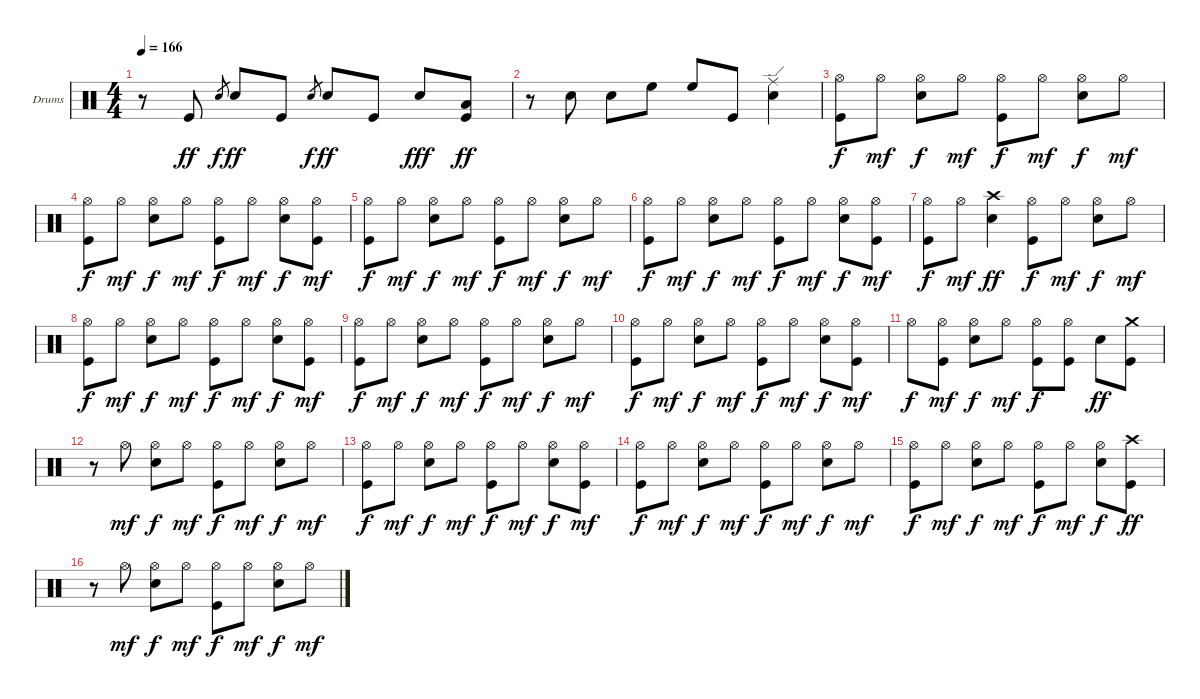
\defaultSystemsLayout 4
\bracketExtendMode groupsimilarinstruments
\firstSystemTrackNameOrientation horizontal
\otherSystemsTrackNameOrientation horizontal
\track ("Lars Ulrich" "Drums") {instrument percussion}
\staff {score}
\articulation defaults
\ts (4 4)
\tempo 166
\clef neutral
\scale
0.333333
\ks c
r.8{dy ff} "Kick (hit)".8 "Snare (hit) 2".8{gr dy f} "Snare (hit) 2".8{dy ff} "Kick (hit)".8 "Snare (hit) 2".8{gr dy f} "Snare (hit) 2".8{dy ff} "Kick (hit)".8 "Snare (hit) 2".8{dy fff} ("Low Tom (hit)" "Kick (hit)").8{dy ff} |
\scale
0.333333 r.8 "Snare (hit) 2".8 "Snare (hit) 2".8 "High Floor Tom (hit)".8 "High Floor Tom (hit)".8 "Kick (hit)".8 ("Ride (edge)" "Snare (hit) 2").4 |
\scale
0.333333 ("Hi-Hat (open)" "Kick (hit)").8{dy f} "Hi-Hat (open)".8{dy mf} ("Hi-Hat (open)" "Snare (hit) 2").8{dy f} "Hi-Hat (open)".8{dy mf} ("Hi-Hat (open)" "Kick (hit)").8{dy f} "Hi-Hat (open)".8{dy mf} ("Hi-Hat (open)" "Snare (hit) 2").8{dy f} "Hi-Hat (open)".8{dy mf} |
\scale
0.333333 ("Hi-Hat (open)" "Kick (hit)").8{dy f} "Hi-Hat (open)".8{dy mf} ("Hi-Hat (open)" "Snare (hit) 2").8{dy f} "Hi-Hat (open)".8{dy mf} ("Hi-Hat (open)" "Kick (hit)").8{dy f} "Hi-Hat (open)".8{dy mf} ("Hi-Hat (open)" "Snare (hit) 2").8{dy f} ("Hi-Hat (open)" "Kick (hit)").8{dy mf} |
\scale
0.333333 ("Hi-Hat (open)" "Kick (hit)").8{dy f} "Hi-Hat (open)".8{dy mf} ("Hi-Hat (open)" "Snare (hit) 2").8{dy f} "Hi-Hat (open)".8{dy mf} ("Hi-Hat (open)" "Kick (hit)").8{dy f} "Hi-Hat (open)".8{dy mf} ("Hi-Hat (open)" "Snare (hit) 2").8{dy f} "Hi-Hat (open)".8{dy mf} |
\scale
0.333333 ("Hi-Hat (open)" "Kick (hit)").8{dy f} "Hi-Hat (open)".8{dy mf} ("Hi-Hat (open)" "Snare (hit) 2").8{dy f} "Hi-Hat (open)".8{dy mf} ("Hi-Hat (open)" "Kick (hit)").8{dy f} "Hi-Hat (open)".8{dy mf} ("Hi-Hat (open)" "Snare (hit) 2").8{dy f} ("Hi-Hat (open)" "Kick (hit)").8{dy mf} |
\scale
0.333333 ("Hi-Hat (open)" "Kick (hit)").8{dy f} "Hi-Hat (open)".8{dy mf} ("Crash high (hit)" "Snare (hit) 2").4{dy ff} ("Hi-Hat (open)" "Kick (hit)").8{dy f} "Hi-Hat (open)".8{dy mf} ("Hi-Hat (open)" "Snare (hit) 2").8{dy f} "Hi-Hat (open)".8{dy mf} |
\scale
0.333333 ("Hi-Hat (open)" "Kick (hit)").8{dy f} "Hi-Hat (open)".8{dy mf} ("Hi-Hat (open)" "Snare (hit) 2").8{dy f} "Hi-Hat (open)".8{dy mf} ("Hi-Hat (open)" "Kick (hit)").8{dy f} "Hi-Hat (open)".8{dy mf} ("Hi-Hat (open)" "Snare (hit) 2").8{dy f} ("Hi-Hat (open)" "Kick (hit)").8{dy mf} |
\scale
0.333333 ("Hi-Hat (open)" "Kick (hit)").8{dy f} "Hi-Hat (open)".8{dy mf} ("Hi-Hat (open)" "Snare (hit) 2").8{dy f} "Hi-Hat (open)".8{dy mf} ("Hi-Hat (open)" "Kick (hit)").8{dy f} "Hi-Hat (open)".8{dy mf} ("Hi-Hat (open)" "Snare (hit) 2").8{dy f} "Hi-Hat (open)".8{dy mf} |
\scale
0.333333 ("Hi-Hat (open)" "Kick (hit)").8{dy f} "Hi-Hat (open)".8{dy mf} ("Hi-Hat (open)" "Snare (hit) 2").8{dy f} "Hi-Hat (open)".8{dy mf} ("Hi-Hat (open)" "Kick (hit)").8{dy f} "Hi-Hat (open)".8{dy mf} ("Hi-Hat (open)" "Snare (hit) 2").8{dy f} ("Hi-Hat (open)" "Kick (hit)").8{dy mf} |
\scale
0.333333 "Hi-Hat (open)".8{dy f} ("Hi-Hat (open)" "Kick (hit)").8{dy mf} ("Hi-Hat (open)" "Snare (hit) 2").8{dy f} "Hi-Hat (open)".8{dy mf} ("Hi-Hat (open)" "Kick (hit)").8{dy f} ("Hi-Hat (open)" "Kick (hit)").8 "Snare (hit) 2".8{dy ff} ("Crash medium (hit)" "Kick (hit)").8 |
\scale
0.333333 r.8 "Hi-Hat (open)".8{dy mf} ("Hi-Hat (open)" "Snare (hit) 2").8{dy f} "Hi-Hat (open)".8{dy mf} ("Hi-Hat (open)" "Kick (hit)").8{dy f} "Hi-Hat (open)".8{dy mf} ("Hi-Hat (open)" "Snare (hit) 2").8{dy f} "Hi-Hat (open)".8{dy mf} |
\scale
0.333333 ("Hi-Hat (open)" "Kick (hit)").8{dy f} "Hi-Hat (open)".8{dy mf} ("Hi-Hat (open)" "Snare (hit) 2").8{dy f} "Hi-Hat (open)".8{dy mf} ("Hi-Hat (open)" "Kick (hit)").8{dy f} "Hi-Hat (open)".8{dy mf} ("Hi-Hat (open)" "Snare (hit) 2").8{dy f} ("Hi-Hat (open)" "Kick (hit)").8{dy mf} |
\scale
0.333333 ("Hi-Hat (open)" "Kick (hit)").8{dy f} "Hi-Hat (open)".8{dy mf} ("Hi-Hat (open)" "Snare (hit) 2").8{dy f} "Hi-Hat (open)".8{dy mf} ("Hi-Hat (open)" "Kick (hit)").8{dy f} "Hi-Hat (open)".8{dy mf} ("Hi-Hat (open)" "Snare (hit) 2").8{dy f} "Hi-Hat (open)".8{dy mf} |
\scale
0.333333 ("Hi-Hat (open)" "Kick (hit)").8{dy f} "Hi-Hat (open)".8{dy mf} ("Hi-Hat (open)" "Snare (hit) 2").8{dy f} "Hi-Hat (open)".8{dy mf} ("Hi-Hat (open)" "Kick (hit)").8{dy f} "Hi-Hat (open)".8{dy mf} ("Hi-Hat (open)" "Snare (hit) 2").8{dy f} ("Crash high (hit)" "Kick (hit)").8{dy ff} |
\scale
0.333333 r.8 "Hi-Hat (open)".8{dy mf} ("Hi-Hat (open)" "Snare (hit) 2").8{dy f} "Hi-Hat (open)".8{dy mf} ("Hi-Hat (open)" "Kick (hit)").8{dy f} "Hi-Hat (open)".8{dy mf} ("Hi-Hat (open)" "Snare (hit) 2").8{dy f} "Hi-Hat (open)".8{dy mf}
